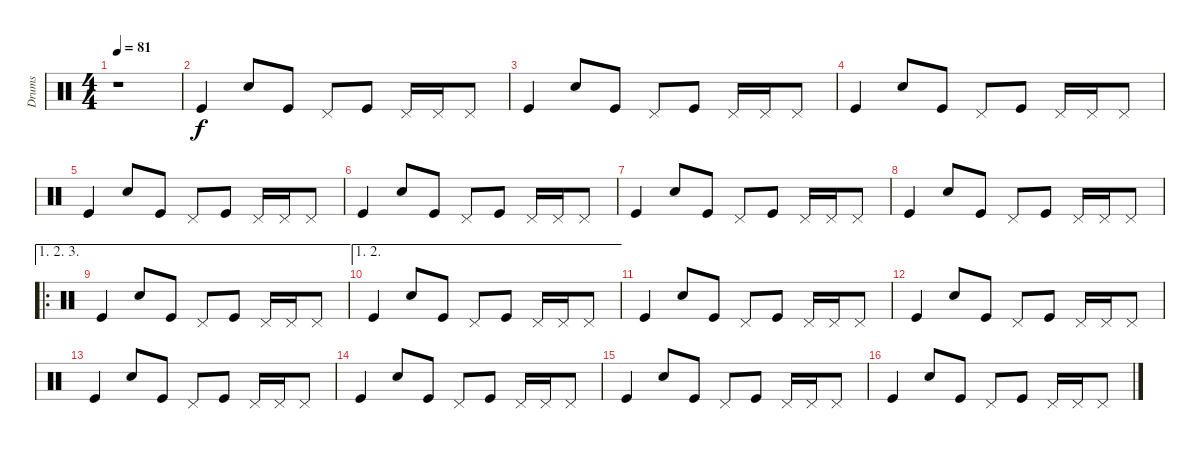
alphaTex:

\track ("Drums" "Drums") {instrument percussion}
\staff {score}
\articulation defaults
\ts (4 4)
\tempo 81
\clef neutral
\ks c
r.1{dy f} |
"Kick (hit)".4 "Snare (hit) 2".8 "Kick (hit)".8 "Pedal Hi-Hat (hit)".8 "Kick (hit)".8 "Pedal Hi-Hat (hit)".16 "Pedal Hi-Hat (hit)".16 "Pedal Hi-Hat (hit)".8 |
"Kick (hit)".4 "Snare (hit) 2".8 "Kick (hit)".8 "Pedal Hi-Hat (hit)".8 "Kick (hit)".8 "Pedal Hi-Hat (hit)".16 "Pedal Hi-Hat (hit)".16 "Pedal Hi-Hat (hit)".8 |
"Kick (hit)".4 "Snare (hit) 2".8 "Kick (hit)".8 "Pedal Hi-Hat (hit)".8 "Kick (hit)".8 "Pedal Hi-Hat (hit)".16 "Pedal Hi-Hat (hit)".16 "Pedal Hi-Hat (hit)".8 |
"Kick (hit)".4 "Snare (hit) 2".8 "Kick (hit)".8 "Pedal Hi-Hat (hit)".8 "Kick (hit)".8 "Pedal Hi-Hat (hit)".16 "Pedal Hi-Hat (hit)".16 "Pedal Hi-Hat (hit)".8 |
"Kick (hit)".4 "Snare (hit) 2".8 "Kick (hit)".8 "Pedal Hi-Hat (hit)".8 "Kick (hit)".8 "Pedal Hi-Hat (hit)".16 "Pedal Hi-Hat (hit)".16 "Pedal Hi-Hat (hit)".8 |
"Kick (hit)".4 "Snare (hit) 2".8 "Kick (hit)".8 "Pedal Hi-Hat (hit)".8 "Kick (hit)".8 "Pedal Hi-Hat (hit)".16 "Pedal Hi-Hat (hit)".16 "Pedal Hi-Hat (hit)".8 |
"Kick (hit)".4 "Snare (hit) 2".8 "Kick (hit)".8 "Pedal Hi-Hat (hit)".8 "Kick (hit)".8 "Pedal Hi-Hat (hit)".16 "Pedal Hi-Hat (hit)".16 "Pedal Hi-Hat (hit)".8 |
\ae (1 2 3)
\ro "Kick (hit)".4 "Snare (hit) 2".8 "Kick (hit)".8 "Pedal Hi-Hat (hit)".8 "Kick (hit)".8 "Pedal Hi-Hat (hit)".16 "Pedal Hi-Hat (hit)".16 "Pedal Hi-Hat (hit)".8
|
\ae (1 2)
"Kick (hit)".4 "Snare (hit) 2".8 "Kick (hit)".8 "Pedal Hi-Hat (hit)".8 "Kick (hit)".8 "Pedal Hi-Hat (hit)".16 "Pedal Hi-Hat (hit)".16 "Pedal Hi-Hat (hit)".8 |
"Kick (hit)".4 "Snare (hit) 2".8 "Kick (hit)".8 "Pedal Hi-Hat (hit)".8 "Kick (hit)".8 "Pedal Hi-Hat (hit)".16 "Pedal Hi-Hat (hit)".16 "Pedal Hi-Hat (hit)".8 |
"Kick (hit)".4 "Snare (hit) 2".8 "Kick (hit)".8 "Pedal Hi-Hat (hit)".8 "Kick (hit)".8 "Pedal Hi-Hat (hit)".16 "Pedal Hi-Hat (hit)".16 "Pedal Hi-Hat (hit)".8 |
"Kick (hit)".4 "Snare (hit) 2".8 "Kick (hit)".8 "Pedal Hi-Hat (hit)".8 "Kick (hit)".8 "Pedal Hi-Hat (hit)".16 "Pedal Hi-Hat (hit)".16 "Pedal Hi-Hat (hit)".8 |
"Kick (hit)".4 "Snare (hit) 2".8 "Kick (hit)".8 "Pedal Hi-Hat (hit)".8 "Kick (hit)".8 "Pedal Hi-Hat (hit)".16 "Pedal Hi-Hat (hit)".16 "Pedal Hi-Hat (hit)".8 |
"Kick (hit)".4 "Snare (hit) 2".8 "Kick (hit)".8 "Pedal Hi-Hat (hit)".8 "Kick (hit)".8 "Pedal Hi-Hat (hit)".16 "Pedal Hi-Hat (hit)".16 "Pedal Hi-Hat (hit)".8 |
"Kick (hit)".4 "Snare (hit) 2".8 "Kick (hit)".8 "Pedal Hi-Hat (hit)".8 "Kick (hit)".8 "Pedal Hi-Hat (hit)".16 "Pedal Hi-Hat (hit)".16 "Pedal Hi-Hat (hit)".8
